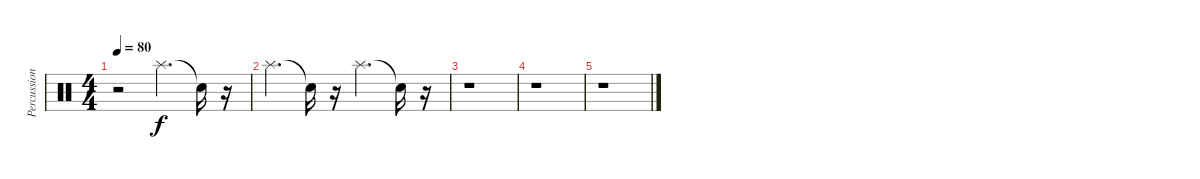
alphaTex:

\track ("Percussion" "Percussion") {instrument percussion}
\staff {score}
\articulation defaults
\ts (4 4)
\tempo 80
\clef neutral
\ks c
r.2{dy f} "Splash (hit)".4{d} "Snare (hit)"{t}.16 r.16 |
"Splash (hit)".4{d} "Snare (hit)"{t}.16 r.16 "Splash (hit)".4{d} "Snare (hit)"{t}.16 r.16 |
r.1 |
r.1 |
r.1
